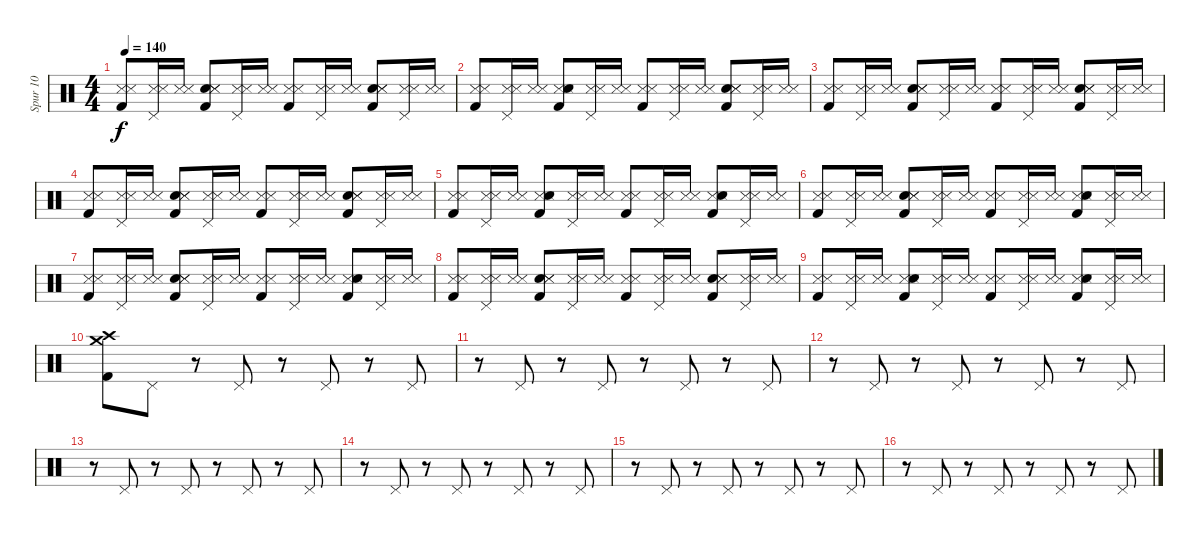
\track ("Spur 10" "Spur 10") {instrument percussion}
\staff {score}
\articulation defaults
\ts (4 4)
\tempo 140
\clef neutral
\ks c
("Snare (side stick) 3" "Kick (hit) 2" "Metronome (hit)").8{dy f} ("Pedal Hi-Hat (hit)" "Snare (side stick) 3" "Metronome (hit)").16 ("Snare (side stick) 3" "Metronome (hit)").16 ("Snare (hit) 2" "Kick (hit) 2" "Snare (side stick) 3" "Metronome (hit)").8 ("Snare (side stick) 3" "Pedal Hi-Hat (hit)" "Metronome (hit)").16 ("Snare (side stick) 3" "Metronome (hit)").16 ("Kick (hit) 2" "Snare (side stick) 3" "Metronome (hit)").8 ("Pedal Hi-Hat (hit)" "Snare (side stick) 3" "Metronome (hit)").16 ("Snare (side stick) 3" "Metronome (hit)").16 ("Snare (hit) 2" "Snare (side stick) 3" "Kick (hit) 2" "Metronome (hit)").8 ("Pedal Hi-Hat (hit)" "Snare (side stick) 3" "Metronome (hit)").16 ("Snare (side stick) 3" "Metronome (hit)").16 |
("Kick (hit) 2" "Snare (side stick) 3" "Metronome (hit)").8 ("Pedal Hi-Hat (hit)" "Snare (side stick) 3" "Metronome (hit)").16 ("Snare (side stick) 3" "Metronome (hit)").16 ("Snare (side stick) 3" "Kick (hit) 2" "Snare (hit) 2" "Metronome (hit)").8 ("Pedal Hi-Hat (hit)" "Snare (side stick) 3" "Metronome (hit)").16 ("Snare (side stick) 3" "Metronome (hit)").16 ("Snare (side stick) 3" "Kick (hit) 2" "Metronome (hit)").8 ("Pedal Hi-Hat (hit)" "Snare (side stick) 3" "Metronome (hit)").16 ("Snare (side stick) 3" "Metronome (hit)").16 ("Snare (hit) 2" "Kick (hit) 2" "Snare (side stick) 3" "Metronome (hit)").8 ("Snare (side stick) 3" "Pedal Hi-Hat (hit)" "Metronome (hit)").16 ("Snare (side stick) 3" "Metronome (hit)").16 |
("Kick (hit) 2" "Snare (side stick) 3" "Metronome (hit)").8 ("Snare (side stick) 3" "Pedal Hi-Hat (hit)" "Metronome (hit)").16 ("Snare (side stick) 3" "Metronome (hit)").16 ("Snare (hit) 2" "Snare (side stick) 3" "Kick (hit) 2" "Metronome (hit)").8 ("Snare (side stick) 3" "Pedal Hi-Hat (hit)" "Metronome (hit)").16 ("Snare (side stick) 3" "Metronome (hit)").16 ("Kick (hit) 2" "Snare (side stick) 3" "Metronome (hit)").8 ("Pedal Hi-Hat (hit)" "Snare (side stick) 3" "Metronome (hit)").16 ("Snare (side stick) 3" "Metronome (hit)").16 ("Snare (hit) 2" "Kick (hit) 2" "Snare (side stick) 3" "Metronome (hit)").8 ("Snare (side stick) 3" "Pedal Hi-Hat (hit)" "Metronome (hit)").16 ("Snare (side stick) 3" "Metronome (hit)").16 |
("Kick (hit) 2" "Snare (side stick) 3" "Metronome (hit)").8 ("Snare (side stick) 3" "Pedal Hi-Hat (hit)" "Metronome (hit)").16 ("Snare (side stick) 3" "Metronome (hit)").16 ("Snare (hit) 2" "Snare (side stick) 3" "Kick (hit) 2" "Metronome (hit)").8 ("Snare (side stick) 3" "Pedal Hi-Hat (hit)" "Metronome (hit)").16 ("Snare (side stick) 3" "Metronome (hit)").16 ("Snare (side stick) 3" "Kick (hit) 2" "Metronome (hit)").8 ("Pedal Hi-Hat (hit)" "Snare (side stick) 3" "Metronome (hit)").16 ("Snare (side stick) 3" "Metronome (hit)").16 ("Snare (hit) 2" "Snare (side stick) 3" "Kick (hit) 2" "Metronome (hit)").8 ("Pedal Hi-Hat (hit)" "Snare (side stick) 3" "Metronome (hit)").16 ("Snare (side stick) 3" "Metronome (hit)").16 |
("Kick (hit) 2" "Snare (side stick) 3" "Metronome (hit)").8 ("Pedal Hi-Hat (hit)" "Snare (side stick) 3" "Metronome (hit)").16 ("Snare (side stick) 3" "Metronome (hit)").16 ("Kick (hit) 2" "Snare (side stick) 3" "Snare (hit) 2" "Metronome (hit)").8 ("Snare (side stick) 3" "Pedal Hi-Hat (hit)" "Metronome (hit)").16 ("Snare (side stick) 3" "Metronome (hit)").16 ("Kick (hit) 2" "Snare (side stick) 3" "Metronome (hit)").8 ("Snare (side stick) 3" "Pedal Hi-Hat (hit)" "Metronome (hit)").16 ("Snare (side stick) 3" "Metronome (hit)").16 ("Kick (hit) 2" "Snare (side stick) 3" "Snare (hit) 2" "Metronome (hit)").8 ("Snare (side stick) 3" "Pedal Hi-Hat (hit)" "Metronome (hit)").16 ("Snare (side stick) 3" "Metronome (hit)").16 |
("Snare (side stick) 3" "Kick (hit) 2" "Metronome (hit)").8 ("Pedal Hi-Hat (hit)" "Snare (side stick) 3" "Metronome (hit)").16 ("Snare (side stick) 3" "Metronome (hit)").16 ("Snare (hit) 2" "Kick (hit) 2" "Snare (side stick) 3" "Metronome (hit)").8 ("Snare (side stick) 3" "Pedal Hi-Hat (hit)" "Metronome (hit)").16 ("Snare (side stick) 3" "Metronome (hit)").16 ("Kick (hit) 2" "Snare (side stick) 3" "Metronome (hit)").8 ("Pedal Hi-Hat (hit)" "Snare (side stick) 3" "Metronome (hit)").16 ("Snare (side stick) 3" "Metronome (hit)").16 ("Snare (side stick) 3" "Snare (hit) 2" "Kick (hit) 2" "Metronome (hit)").8 ("Pedal Hi-Hat (hit)" "Snare (side stick) 3" "Metronome (hit)").16 ("Snare (side stick) 3" "Metronome (hit)").16 |
("Snare (side stick) 3" "Kick (hit) 2" "Metronome (hit)").8 ("Pedal Hi-Hat (hit)" "Snare (side stick) 3" "Metronome (hit)").16 ("Snare (side stick) 3" "Metronome (hit)").16 ("Snare (hit) 2" "Snare (side stick) 3" "Kick (hit) 2" "Metronome (hit)").8 ("Pedal Hi-Hat (hit)" "Snare (side stick) 3" "Metronome (hit)").16 ("Snare (side stick) 3" "Metronome (hit)").16 ("Kick (hit) 2" "Snare (side stick) 3" "Metronome (hit)").8 ("Pedal Hi-Hat (hit)" "Snare (side stick) 3" "Metronome (hit)").16 ("Snare (side stick) 3" "Metronome (hit)").16 ("Snare (side stick) 3" "Kick (hit) 2" "Snare (hit) 2" "Metronome (hit)").8 ("Snare (side stick) 3" "Pedal Hi-Hat (hit)" "Metronome (hit)").16 ("Snare (side stick) 3" "Metronome (hit)").16 |
("Snare (side stick) 3" "Kick (hit) 2" "Metronome (hit)").8 ("Pedal Hi-Hat (hit)" "Snare (side stick) 3" "Metronome (hit)").16 ("Snare (side stick) 3" "Metronome (hit)").16 ("Snare (hit) 2" "Snare (side stick) 3" "Kick (hit) 2" "Metronome (hit)").8 ("Snare (side stick) 3" "Pedal Hi-Hat (hit)" "Metronome (hit)").16 ("Snare (side stick) 3" "Metronome (hit)").16 ("Snare (side stick) 3" "Kick (hit) 2" "Metronome (hit)").8 ("Snare (side stick) 3" "Pedal Hi-Hat (hit)" "Metronome (hit)").16 ("Snare (side stick) 3" "Metronome (hit)").16 ("Snare (hit) 2" "Kick (hit) 2" "Snare (side stick) 3" "Metronome (hit)").8 ("Pedal Hi-Hat (hit)" "Snare (side stick) 3" "Metronome (hit)").16 ("Snare (side stick) 3" "Metronome (hit)").16 |
("Snare (side stick) 3" "Kick (hit) 2" "Metronome (hit)").8 ("Pedal Hi-Hat (hit)" "Snare (side stick) 3" "Metronome (hit)").16 ("Snare (side stick) 3" "Metronome (hit)").16 ("Snare (side stick) 3" "Kick (hit) 2" "Snare (hit) 2" "Metronome (hit)").8 ("Pedal Hi-Hat (hit)" "Snare (side stick) 3" "Metronome (hit)").16 ("Snare (side stick) 3" "Metronome (hit)").16 ("Snare (side stick) 3" "Kick (hit) 2" "Metronome (hit)").8 ("Pedal Hi-Hat (hit)" "Snare (side stick) 3" "Metronome (hit)").16 ("Snare (side stick) 3" "Metronome (hit)").16 ("Snare (side stick) 3" "Snare (hit) 2" "Kick (hit) 2" "Metronome (hit)").8 ("Snare (side stick) 3" "Pedal Hi-Hat (hit)" "Metronome (hit)").16 ("Snare (side stick) 3" "Metronome (hit)").16 |
("Crash medium (hit)" "Crash high (hit)" "Kick (hit) 2").8 "Pedal Hi-Hat (hit)".8 r.8 "Pedal Hi-Hat (hit)".8 r.8 "Pedal Hi-Hat (hit)".8 r.8 "Pedal Hi-Hat (hit)".8 |
r.8 "Pedal Hi-Hat (hit)".8 r.8 "Pedal Hi-Hat (hit)".8 r.8 "Pedal Hi-Hat (hit)".8 r.8 "Pedal Hi-Hat (hit)".8 |
r.8 "Pedal Hi-Hat (hit)".8 r.8 "Pedal Hi-Hat (hit)".8 r.8 "Pedal Hi-Hat (hit)".8 r.8 "Pedal Hi-Hat (hit)".8 |
r.8 "Pedal Hi-Hat (hit)".8 r.8 "Pedal Hi-Hat (hit)".8 r.8 "Pedal Hi-Hat (hit)".8 r.8 "Pedal Hi-Hat (hit)".8 |
r.8 "Pedal Hi-Hat (hit)".8 r.8 "Pedal Hi-Hat (hit)".8 r.8 "Pedal Hi-Hat (hit)".8 r.8 "Pedal Hi-Hat (hit)".8 |
r.8 "Pedal Hi-Hat (hit)".8 r.8 "Pedal Hi-Hat (hit)".8 r.8 "Pedal Hi-Hat (hit)".8 r.8 "Pedal Hi-Hat (hit)".8 |
r.8 "Pedal Hi-Hat (hit)".8 r.8 "Pedal Hi-Hat (hit)".8 r.8 "Pedal Hi-Hat (hit)".8 r.8 "Pedal Hi-Hat (hit)".8
